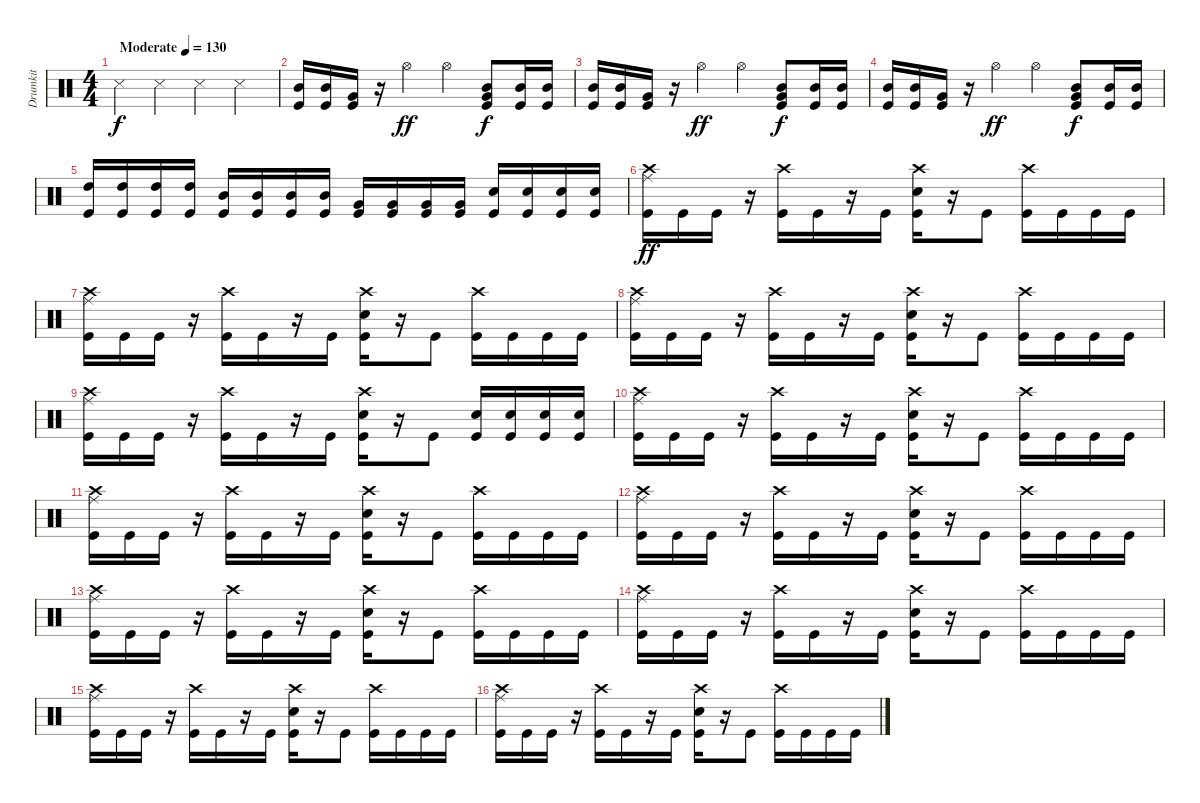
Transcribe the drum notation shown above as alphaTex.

\track ("Drumkit" "Drumkit") {instrument percussion}
\staff {score}
\articulation defaults
\ts (4 4)
\tempo (130 "Moderate")
\clef neutral
\ks c "Snare (side stick) 3".4{dy f} "Snare (side stick) 3".4 "Snare (side stick) 3".4 "Snare (side stick) 3".4
|
("Kick (hit)" "Mid Tom (hit)").16 ("Kick (hit)" "Mid Tom (hit)").16 ("Kick (hit)" "Very Low Tom (hit)").16 r.16 "Hi-Hat (open)".4{dy ff} "Hi-Hat (open)".4 ("Kick (hit)" "Very Low Tom (hit)" "Mid Tom (hit)").8{dy f} ("Kick (hit)" "Mid Tom (hit)").16 ("Kick (hit)" "Mid Tom (hit)").16 |
("Kick (hit)" "Mid Tom (hit)").16 ("Kick (hit)" "Mid Tom (hit)").16 ("Kick (hit)" "Very Low Tom (hit)").16 r.16 "Hi-Hat (open)".4{dy ff} "Hi-Hat (open)".4 ("Kick (hit)" "Very Low Tom (hit)" "Mid Tom (hit)").8{dy f} ("Kick (hit)" "Mid Tom (hit)").16 ("Kick (hit)" "Mid Tom (hit)").16 |
("Kick (hit)" "Mid Tom (hit)").16 ("Kick (hit)" "Mid Tom (hit)").16 ("Kick (hit)" "Very Low Tom (hit)").16 r.16 "Hi-Hat (open)".4{dy ff} "Hi-Hat (open)".4 ("Kick (hit)" "Very Low Tom (hit)" "Mid Tom (hit)").8{dy f} ("Kick (hit)" "Mid Tom (hit)").16 ("Kick (hit)" "Mid Tom (hit)").16 |
("Kick (hit)" "High Tom (hit)").16 ("Kick (hit)" "High Tom (hit)").16 ("Kick (hit)" "High Tom (hit)").16 ("Kick (hit)" "High Tom (hit)").16 ("Kick (hit)" "Mid Tom (hit)").16 ("Kick (hit)" "Mid Tom (hit)").16 ("Kick (hit)" "Mid Tom (hit)").16 ("Kick (hit)" "Mid Tom (hit)").16 ("Kick (hit)" "Very Low Tom (hit)").16 ("Kick (hit)" "Very Low Tom (hit)").16 ("Kick (hit)" "Very Low Tom (hit)").16 ("Kick (hit)" "Very Low Tom (hit)").16 ("Kick (hit)" "Snare (hit) 2").16 ("Kick (hit)" "Snare (hit) 2").16 ("Kick (hit)" "Snare (hit) 2").16 ("Kick (hit)" "Snare (hit) 2").16 |
("Kick (hit)" "Crash high (hit)" "Ride (middle)").16{dy ff} "Kick (hit)".16 "Kick (hit)".16 r.16 ("Kick (hit)" "Crash high (hit)").16 "Kick (hit)".16 r.16 "Kick (hit)".16 ("Kick (hit)" "Crash high (hit)" "Snare (hit) 2").16 r.16 "Kick (hit)".8 ("Kick (hit)" "Crash high (hit)").16 "Kick (hit)".16 "Kick (hit)".16 "Kick (hit)".16 |
("Kick (hit)" "Crash high (hit)" "Ride (middle)").16 "Kick (hit)".16 "Kick (hit)".16 r.16 ("Kick (hit)" "Crash high (hit)").16 "Kick (hit)".16 r.16 "Kick (hit)".16 ("Kick (hit)" "Crash high (hit)" "Snare (hit) 2").16 r.16 "Kick (hit)".8 ("Kick (hit)" "Crash high (hit)").16 "Kick (hit)".16 "Kick (hit)".16 "Kick (hit)".16 |
("Kick (hit)" "Crash high (hit)" "Ride (middle)").16 "Kick (hit)".16 "Kick (hit)".16 r.16 ("Kick (hit)" "Crash high (hit)").16 "Kick (hit)".16 r.16 "Kick (hit)".16 ("Kick (hit)" "Crash high (hit)" "Snare (hit) 2").16 r.16 "Kick (hit)".8 ("Kick (hit)" "Crash high (hit)").16 "Kick (hit)".16 "Kick (hit)".16 "Kick (hit)".16 |
("Kick (hit)" "Crash high (hit)" "Ride (middle)").16 "Kick (hit)".16 "Kick (hit)".16 r.16 ("Kick (hit)" "Crash high (hit)").16 "Kick (hit)".16 r.16 "Kick (hit)".16 ("Kick (hit)" "Crash high (hit)" "Snare (hit) 2").16 r.16 "Kick (hit)".8 ("Kick (hit)" "Snare (hit) 2").16 ("Kick (hit)" "Snare (hit) 2").16 ("Kick (hit)" "Snare (hit) 2").16 ("Kick (hit)" "Snare (hit) 2").16 |
("Kick (hit)" "Crash high (hit)" "Ride (middle)").16 "Kick (hit)".16 "Kick (hit)".16 r.16 ("Kick (hit)" "Crash high (hit)").16 "Kick (hit)".16 r.16 "Kick (hit)".16 ("Kick (hit)" "Crash high (hit)" "Snare (hit) 2").16 r.16 "Kick (hit)".8 ("Kick (hit)" "Crash high (hit)").16 "Kick (hit)".16 "Kick (hit)".16 "Kick (hit)".16 |
("Kick (hit)" "Crash high (hit)" "Ride (middle)").16 "Kick (hit)".16 "Kick (hit)".16 r.16 ("Kick (hit)" "Crash high (hit)").16 "Kick (hit)".16 r.16 "Kick (hit)".16 ("Kick (hit)" "Crash high (hit)" "Snare (hit) 2").16 r.16 "Kick (hit)".8 ("Kick (hit)" "Crash high (hit)").16 "Kick (hit)".16 "Kick (hit)".16 "Kick (hit)".16 |
("Kick (hit)" "Crash high (hit)" "Ride (middle)").16 "Kick (hit)".16 "Kick (hit)".16 r.16 ("Kick (hit)" "Crash high (hit)").16 "Kick (hit)".16 r.16 "Kick (hit)".16 ("Kick (hit)" "Crash high (hit)" "Snare (hit) 2").16 r.16 "Kick (hit)".8 ("Kick (hit)" "Crash high (hit)").16 "Kick (hit)".16 "Kick (hit)".16 "Kick (hit)".16 |
("Kick (hit)" "Crash high (hit)" "Ride (middle)").16 "Kick (hit)".16 "Kick (hit)".16 r.16 ("Kick (hit)" "Crash high (hit)").16 "Kick (hit)".16 r.16 "Kick (hit)".16 ("Kick (hit)" "Crash high (hit)" "Snare (hit) 2").16 r.16 "Kick (hit)".8 ("Kick (hit)" "Crash high (hit)").16 "Kick (hit)".16 "Kick (hit)".16 "Kick (hit)".16 |
("Kick (hit)" "Crash high (hit)" "Ride (middle)").16 "Kick (hit)".16 "Kick (hit)".16 r.16 ("Kick (hit)" "Crash high (hit)").16 "Kick (hit)".16 r.16 "Kick (hit)".16 ("Kick (hit)" "Crash high (hit)" "Snare (hit) 2").16 r.16 "Kick (hit)".8 ("Kick (hit)" "Crash high (hit)").16 "Kick (hit)".16 "Kick (hit)".16 "Kick (hit)".16 |
("Kick (hit)" "Crash high (hit)" "Ride (middle)").16 "Kick (hit)".16 "Kick (hit)".16 r.16 ("Kick (hit)" "Crash high (hit)").16 "Kick (hit)".16 r.16 "Kick (hit)".16 ("Kick (hit)" "Crash high (hit)" "Snare (hit) 2").16 r.16 "Kick (hit)".8 ("Kick (hit)" "Crash high (hit)").16 "Kick (hit)".16 "Kick (hit)".16 "Kick (hit)".16 |
("Kick (hit)" "Crash high (hit)" "Ride (middle)").16 "Kick (hit)".16 "Kick (hit)".16 r.16 ("Kick (hit)" "Crash high (hit)").16 "Kick (hit)".16 r.16 "Kick (hit)".16 ("Kick (hit)" "Crash high (hit)" "Snare (hit) 2").16 r.16 "Kick (hit)".8 ("Kick (hit)" "Crash high (hit)").16 "Kick (hit)".16 "Kick (hit)".16 "Kick (hit)".16
